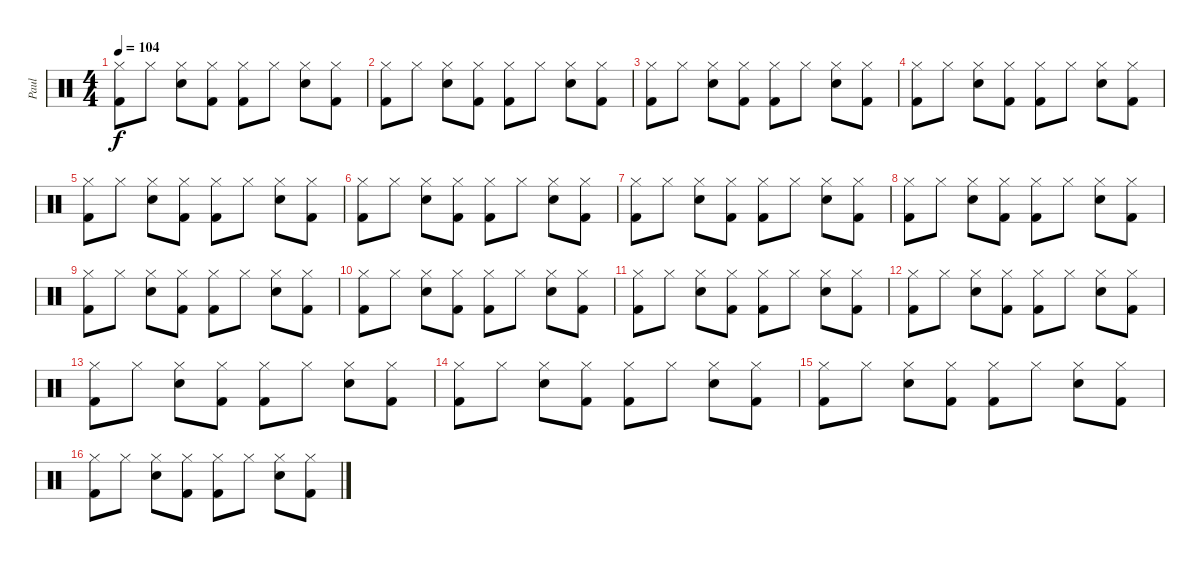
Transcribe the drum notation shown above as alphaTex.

\track ("Paul" "Paul") {instrument percussion}
\staff {score}
\articulation defaults
\ts (4 4)
\tempo 104
\clef neutral
\ks c
("Hi-Hat (closed)" "Kick (hit) 2").8{dy f} "Hi-Hat (closed)".8 ("Hi-Hat (closed)" "Snare (hit) 2").8 ("Hi-Hat (closed)" "Kick (hit) 2").8 ("Hi-Hat (closed)" "Kick (hit) 2").8 "Hi-Hat (closed)".8 ("Hi-Hat (closed)" "Snare (hit) 2").8 ("Hi-Hat (closed)" "Kick (hit) 2").8 |
("Hi-Hat (closed)" "Kick (hit) 2").8 "Hi-Hat (closed)".8 ("Hi-Hat (closed)" "Snare (hit) 2").8 ("Hi-Hat (closed)" "Kick (hit) 2").8 ("Hi-Hat (closed)" "Kick (hit) 2").8 "Hi-Hat (closed)".8 ("Hi-Hat (closed)" "Snare (hit) 2").8 ("Hi-Hat (closed)" "Kick (hit) 2").8 |
("Hi-Hat (closed)" "Kick (hit) 2").8 "Hi-Hat (closed)".8 ("Hi-Hat (closed)" "Snare (hit) 2").8 ("Hi-Hat (closed)" "Kick (hit) 2").8 ("Hi-Hat (closed)" "Kick (hit) 2").8 "Hi-Hat (closed)".8 ("Hi-Hat (closed)" "Snare (hit) 2").8 ("Hi-Hat (closed)" "Kick (hit) 2").8 |
("Hi-Hat (closed)" "Kick (hit) 2").8 "Hi-Hat (closed)".8 ("Hi-Hat (closed)" "Snare (hit) 2").8 ("Hi-Hat (closed)" "Kick (hit) 2").8 ("Hi-Hat (closed)" "Kick (hit) 2").8 "Hi-Hat (closed)".8 ("Hi-Hat (closed)" "Snare (hit) 2").8 ("Hi-Hat (closed)" "Kick (hit) 2").8 |
("Hi-Hat (closed)" "Kick (hit) 2").8 "Hi-Hat (closed)".8 ("Hi-Hat (closed)" "Snare (hit) 2").8 ("Hi-Hat (closed)" "Kick (hit) 2").8 ("Hi-Hat (closed)" "Kick (hit) 2").8 "Hi-Hat (closed)".8 ("Hi-Hat (closed)" "Snare (hit) 2").8 ("Hi-Hat (closed)" "Kick (hit) 2").8 |
("Hi-Hat (closed)" "Kick (hit) 2").8 "Hi-Hat (closed)".8 ("Hi-Hat (closed)" "Snare (hit) 2").8 ("Hi-Hat (closed)" "Kick (hit) 2").8 ("Hi-Hat (closed)" "Kick (hit) 2").8 "Hi-Hat (closed)".8 ("Hi-Hat (closed)" "Snare (hit) 2").8 ("Hi-Hat (closed)" "Kick (hit) 2").8 |
("Hi-Hat (closed)" "Kick (hit) 2").8 "Hi-Hat (closed)".8 ("Hi-Hat (closed)" "Snare (hit) 2").8 ("Hi-Hat (closed)" "Kick (hit) 2").8 ("Hi-Hat (closed)" "Kick (hit) 2").8 "Hi-Hat (closed)".8 ("Hi-Hat (closed)" "Snare (hit) 2").8 ("Hi-Hat (closed)" "Kick (hit) 2").8 |
("Hi-Hat (closed)" "Kick (hit) 2").8 "Hi-Hat (closed)".8 ("Hi-Hat (closed)" "Snare (hit) 2").8 ("Hi-Hat (closed)" "Kick (hit) 2").8 ("Hi-Hat (closed)" "Kick (hit) 2").8 "Hi-Hat (closed)".8 ("Hi-Hat (closed)" "Snare (hit) 2").8 ("Hi-Hat (closed)" "Kick (hit) 2").8 |
("Hi-Hat (closed)" "Kick (hit) 2").8 "Hi-Hat (closed)".8 ("Hi-Hat (closed)" "Snare (hit) 2").8 ("Hi-Hat (closed)" "Kick (hit) 2").8 ("Hi-Hat (closed)" "Kick (hit) 2").8 "Hi-Hat (closed)".8 ("Hi-Hat (closed)" "Snare (hit) 2").8 ("Hi-Hat (closed)" "Kick (hit) 2").8 |
("Hi-Hat (closed)" "Kick (hit) 2").8 "Hi-Hat (closed)".8 ("Hi-Hat (closed)" "Snare (hit) 2").8 ("Hi-Hat (closed)" "Kick (hit) 2").8 ("Hi-Hat (closed)" "Kick (hit) 2").8 "Hi-Hat (closed)".8 ("Hi-Hat (closed)" "Snare (hit) 2").8 ("Hi-Hat (closed)" "Kick (hit) 2").8 |
("Hi-Hat (closed)" "Kick (hit) 2").8 "Hi-Hat (closed)".8 ("Hi-Hat (closed)" "Snare (hit) 2").8 ("Hi-Hat (closed)" "Kick (hit) 2").8 ("Hi-Hat (closed)" "Kick (hit) 2").8 "Hi-Hat (closed)".8 ("Hi-Hat (closed)" "Snare (hit) 2").8 ("Hi-Hat (closed)" "Kick (hit) 2").8 |
("Hi-Hat (closed)" "Kick (hit) 2").8 "Hi-Hat (closed)".8 ("Hi-Hat (closed)" "Snare (hit) 2").8 ("Hi-Hat (closed)" "Kick (hit) 2").8 ("Hi-Hat (closed)" "Kick (hit) 2").8 "Hi-Hat (closed)".8 ("Hi-Hat (closed)" "Snare (hit) 2").8 ("Hi-Hat (closed)" "Kick (hit) 2").8 |
("Hi-Hat (closed)" "Kick (hit) 2").8 "Hi-Hat (closed)".8 ("Hi-Hat (closed)" "Snare (hit) 2").8 ("Hi-Hat (closed)" "Kick (hit) 2").8 ("Hi-Hat (closed)" "Kick (hit) 2").8 "Hi-Hat (closed)".8 ("Hi-Hat (closed)" "Snare (hit) 2").8 ("Hi-Hat (closed)" "Kick (hit) 2").8 |
("Hi-Hat (closed)" "Kick (hit) 2").8 "Hi-Hat (closed)".8 ("Hi-Hat (closed)" "Snare (hit) 2").8 ("Hi-Hat (closed)" "Kick (hit) 2").8 ("Hi-Hat (closed)" "Kick (hit) 2").8 "Hi-Hat (closed)".8 ("Hi-Hat (closed)" "Snare (hit) 2").8 ("Hi-Hat (closed)" "Kick (hit) 2").8 |
("Hi-Hat (closed)" "Kick (hit) 2").8 "Hi-Hat (closed)".8 ("Hi-Hat (closed)" "Snare (hit) 2").8 ("Hi-Hat (closed)" "Kick (hit) 2").8 ("Hi-Hat (closed)" "Kick (hit) 2").8 "Hi-Hat (closed)".8 ("Hi-Hat (closed)" "Snare (hit) 2").8 ("Hi-Hat (closed)" "Kick (hit) 2").8 |
("Hi-Hat (closed)" "Kick (hit) 2").8 "Hi-Hat (closed)".8 ("Hi-Hat (closed)" "Snare (hit) 2").8 ("Hi-Hat (closed)" "Kick (hit) 2").8 ("Hi-Hat (closed)" "Kick (hit) 2").8 "Hi-Hat (closed)".8 ("Hi-Hat (closed)" "Snare (hit) 2").8 ("Hi-Hat (closed)" "Kick (hit) 2").8
